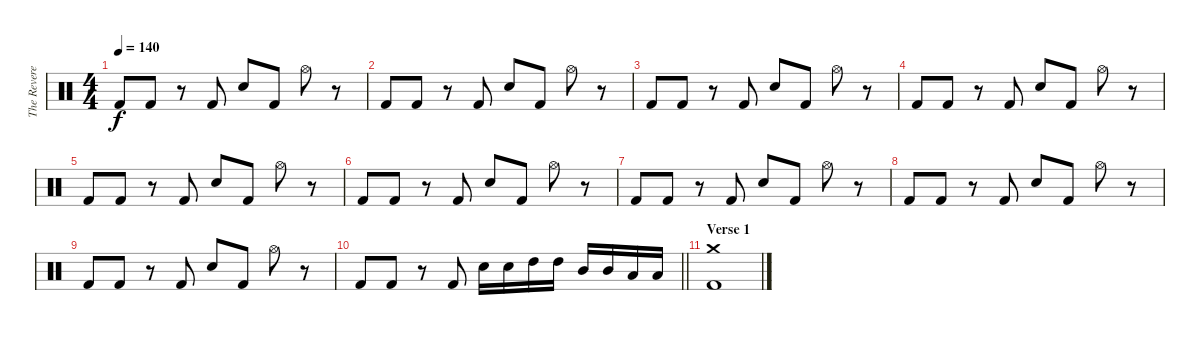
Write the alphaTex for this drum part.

\track ("The Reverend" "The Revere") {instrument percussion}
\staff {score}
\articulation defaults
\ts (4 4)
\tempo 140
\clef neutral
\ks c "Kick (hit) 2".8{dy f} "Kick (hit) 2".8
r.8 "Kick (hit) 2".8 "Snare (hit) 2".8 "Kick (hit) 2".8 "Hi-Hat (open)".8 r.8 |
"Kick (hit) 2".8 "Kick (hit) 2".8 r.8 "Kick (hit) 2".8 "Snare (hit) 2".8 "Kick (hit) 2".8 "Hi-Hat (open)".8 r.8 |
"Kick (hit) 2".8 "Kick (hit) 2".8 r.8 "Kick (hit) 2".8 "Snare (hit) 2".8 "Kick (hit) 2".8 "Hi-Hat (open)".8 r.8 |
"Kick (hit) 2".8 "Kick (hit) 2".8 r.8 "Kick (hit) 2".8 "Snare (hit) 2".8 "Kick (hit) 2".8 "Hi-Hat (open)".8 r.8 |
"Kick (hit) 2".8 "Kick (hit) 2".8 r.8 "Kick (hit) 2".8 "Snare (hit) 2".8 "Kick (hit) 2".8 "Hi-Hat (open)".8 r.8 |
"Kick (hit) 2".8 "Kick (hit) 2".8 r.8 "Kick (hit) 2".8 "Snare (hit) 2".8 "Kick (hit) 2".8 "Hi-Hat (open)".8 r.8 |
"Kick (hit) 2".8 "Kick (hit) 2".8 r.8 "Kick (hit) 2".8 "Snare (hit) 2".8 "Kick (hit) 2".8 "Hi-Hat (open)".8 r.8 |
"Kick (hit) 2".8 "Kick (hit) 2".8 r.8 "Kick (hit) 2".8 "Snare (hit) 2".8 "Kick (hit) 2".8 "Hi-Hat (open)".8 r.8 |
"Kick (hit) 2".8 "Kick (hit) 2".8 r.8 "Kick (hit) 2".8 "Snare (hit) 2".8 "Kick (hit) 2".8 "Hi-Hat (open)".8 r.8 |
\barLineRight lightlight "Kick (hit) 2".8 "Kick (hit) 2".8
r.8 "Kick (hit) 2".8 "Snare (hit) 2".16 "Snare (hit) 2".16 "High Tom (hit)".16 "High Tom (hit)".16 "Mid Tom (hit)".16 "Mid Tom (hit)".16 "Low Tom (hit)".16 "Low Tom (hit)".16 |
\section ("" "Verse 1")
("Crash medium (hit)" "Kick (hit) 2").1
